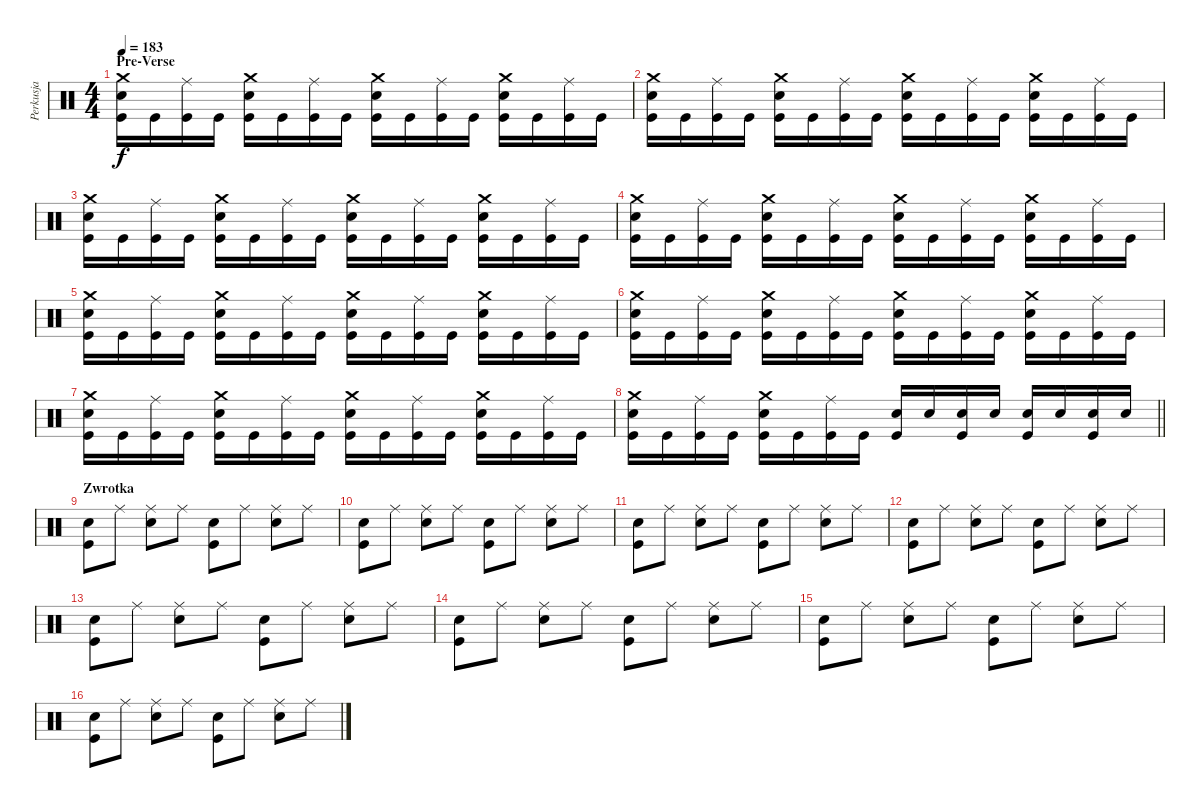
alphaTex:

\track ("Perkusja" "Perkusja") {instrument percussion}
\staff {score}
\articulation defaults
\ts (4 4)
\section ("" "Pre-Verse")
\tempo 183
\clef neutral
\ks c
("Kick (hit)" "Snare (hit) 2" "Crash medium (hit)").16{dy f} "Kick (hit)".16 ("Kick (hit)" "Ride (middle)").16 "Kick (hit)".16 ("Kick (hit)" "Crash medium (hit)" "Snare (hit) 2").16 "Kick (hit)".16 ("Kick (hit)" "Ride (middle)").16 "Kick (hit)".16 ("Kick (hit)" "Crash medium (hit)" "Snare (hit) 2").16 "Kick (hit)".16 ("Kick (hit)" "Ride (middle)").16 "Kick (hit)".16 ("Kick (hit)" "Crash medium (hit)" "Snare (hit) 2").16 "Kick (hit)".16 ("Kick (hit)" "Ride (middle)").16 "Kick (hit)".16 |
("Kick (hit)" "Snare (hit) 2" "Crash medium (hit)").16 "Kick (hit)".16 ("Kick (hit)" "Ride (middle)").16 "Kick (hit)".16 ("Kick (hit)" "Crash medium (hit)" "Snare (hit) 2").16 "Kick (hit)".16 ("Kick (hit)" "Ride (middle)").16 "Kick (hit)".16 ("Kick (hit)" "Crash medium (hit)" "Snare (hit) 2").16 "Kick (hit)".16 ("Kick (hit)" "Ride (middle)").16 "Kick (hit)".16 ("Kick (hit)" "Crash medium (hit)" "Snare (hit) 2").16 "Kick (hit)".16 ("Kick (hit)" "Ride (middle)").16 "Kick (hit)".16 |
("Kick (hit)" "Snare (hit) 2" "Crash medium (hit)").16 "Kick (hit)".16 ("Kick (hit)" "Ride (middle)").16 "Kick (hit)".16 ("Kick (hit)" "Crash medium (hit)" "Snare (hit) 2").16 "Kick (hit)".16 ("Kick (hit)" "Ride (middle)").16 "Kick (hit)".16 ("Kick (hit)" "Crash medium (hit)" "Snare (hit) 2").16 "Kick (hit)".16 ("Kick (hit)" "Ride (middle)").16 "Kick (hit)".16 ("Kick (hit)" "Crash medium (hit)" "Snare (hit) 2").16 "Kick (hit)".16 ("Kick (hit)" "Ride (middle)").16 "Kick (hit)".16 |
("Kick (hit)" "Snare (hit) 2" "Crash medium (hit)").16 "Kick (hit)".16 ("Kick (hit)" "Ride (middle)").16 "Kick (hit)".16 ("Kick (hit)" "Crash medium (hit)" "Snare (hit) 2").16 "Kick (hit)".16 ("Kick (hit)" "Ride (middle)").16 "Kick (hit)".16 ("Kick (hit)" "Crash medium (hit)" "Snare (hit) 2").16 "Kick (hit)".16 ("Kick (hit)" "Ride (middle)").16 "Kick (hit)".16 ("Kick (hit)" "Crash medium (hit)" "Snare (hit) 2").16 "Kick (hit)".16 ("Kick (hit)" "Ride (middle)").16 "Kick (hit)".16 |
("Kick (hit)" "Snare (hit) 2" "Crash medium (hit)").16 "Kick (hit)".16 ("Kick (hit)" "Ride (middle)").16 "Kick (hit)".16 ("Kick (hit)" "Crash medium (hit)" "Snare (hit) 2").16 "Kick (hit)".16 ("Kick (hit)" "Ride (middle)").16 "Kick (hit)".16 ("Kick (hit)" "Crash medium (hit)" "Snare (hit) 2").16 "Kick (hit)".16 ("Kick (hit)" "Ride (middle)").16 "Kick (hit)".16 ("Kick (hit)" "Crash medium (hit)" "Snare (hit) 2").16 "Kick (hit)".16 ("Kick (hit)" "Ride (middle)").16 "Kick (hit)".16 |
("Kick (hit)" "Snare (hit) 2" "Crash medium (hit)").16 "Kick (hit)".16 ("Kick (hit)" "Ride (middle)").16 "Kick (hit)".16 ("Kick (hit)" "Crash medium (hit)" "Snare (hit) 2").16 "Kick (hit)".16 ("Kick (hit)" "Ride (middle)").16 "Kick (hit)".16 ("Kick (hit)" "Crash medium (hit)" "Snare (hit) 2").16 "Kick (hit)".16 ("Kick (hit)" "Ride (middle)").16 "Kick (hit)".16 ("Kick (hit)" "Crash medium (hit)" "Snare (hit) 2").16 "Kick (hit)".16 ("Kick (hit)" "Ride (middle)").16 "Kick (hit)".16 |
("Kick (hit)" "Snare (hit) 2" "Crash medium (hit)").16 "Kick (hit)".16 ("Kick (hit)" "Ride (middle)").16 "Kick (hit)".16 ("Kick (hit)" "Crash medium (hit)" "Snare (hit) 2").16 "Kick (hit)".16 ("Kick (hit)" "Ride (middle)").16 "Kick (hit)".16 ("Kick (hit)" "Crash medium (hit)" "Snare (hit) 2").16 "Kick (hit)".16 ("Kick (hit)" "Ride (middle)").16 "Kick (hit)".16 ("Kick (hit)" "Crash medium (hit)" "Snare (hit) 2").16 "Kick (hit)".16 ("Kick (hit)" "Ride (middle)").16 "Kick (hit)".16 |
\barLineRight lightlight
("Kick (hit)" "Snare (hit) 2" "Crash medium (hit)").16 "Kick (hit)".16 ("Kick (hit)" "Ride (middle)").16 "Kick (hit)".16 ("Kick (hit)" "Crash medium (hit)" "Snare (hit) 2").16 "Kick (hit)".16 ("Kick (hit)" "Ride (middle)").16 "Kick (hit)".16 ("Kick (hit)" "Snare (hit) 2").16 "Snare (hit) 2".16 ("Kick (hit)" "Snare (hit) 2").16 "Snare (hit) 2".16 ("Kick (hit)" "Snare (hit) 2").16 "Snare (hit) 2".16 ("Kick (hit)" "Snare (hit) 2").16 "Snare (hit) 2".16 |
\section ("" "Zwrotka")
("Kick (hit)" "Snare (hit) 2").8 "Ride (middle)".8 ("Ride (middle)" "Snare (hit) 2").8 "Ride (middle)".8 ("Kick (hit)" "Snare (hit) 2").8 "Ride (middle)".8 ("Ride (middle)" "Snare (hit) 2").8 "Ride (middle)".8 |
("Kick (hit)" "Snare (hit) 2").8 "Ride (middle)".8 ("Ride (middle)" "Snare (hit) 2").8 "Ride (middle)".8 ("Kick (hit)" "Snare (hit) 2").8 "Ride (middle)".8 ("Ride (middle)" "Snare (hit) 2").8 "Ride (middle)".8 |
("Kick (hit)" "Snare (hit) 2").8 "Ride (middle)".8 ("Ride (middle)" "Snare (hit) 2").8 "Ride (middle)".8 ("Kick (hit)" "Snare (hit) 2").8 "Ride (middle)".8 ("Ride (middle)" "Snare (hit) 2").8 "Ride (middle)".8 |
("Kick (hit)" "Snare (hit) 2").8 "Ride (middle)".8 ("Ride (middle)" "Snare (hit) 2").8 "Ride (middle)".8 ("Kick (hit)" "Snare (hit) 2").8 "Ride (middle)".8 ("Ride (middle)" "Snare (hit) 2").8 "Ride (middle)".8 |
("Kick (hit)" "Snare (hit) 2").8 "Ride (middle)".8 ("Ride (middle)" "Snare (hit) 2").8 "Ride (middle)".8 ("Kick (hit)" "Snare (hit) 2").8 "Ride (middle)".8 ("Ride (middle)" "Snare (hit) 2").8 "Ride (middle)".8 |
("Kick (hit)" "Snare (hit) 2").8 "Ride (middle)".8 ("Ride (middle)" "Snare (hit) 2").8 "Ride (middle)".8 ("Kick (hit)" "Snare (hit) 2").8 "Ride (middle)".8 ("Ride (middle)" "Snare (hit) 2").8 "Ride (middle)".8 |
("Kick (hit)" "Snare (hit) 2").8 "Ride (middle)".8 ("Ride (middle)" "Snare (hit) 2").8 "Ride (middle)".8 ("Kick (hit)" "Snare (hit) 2").8 "Ride (middle)".8 ("Ride (middle)" "Snare (hit) 2").8 "Ride (middle)".8 |
("Kick (hit)" "Snare (hit) 2").8 "Ride (middle)".8 ("Ride (middle)" "Snare (hit) 2").8 "Ride (middle)".8 ("Kick (hit)" "Snare (hit) 2").8 "Ride (middle)".8 ("Ride (middle)" "Snare (hit) 2").8 "Ride (middle)".8
